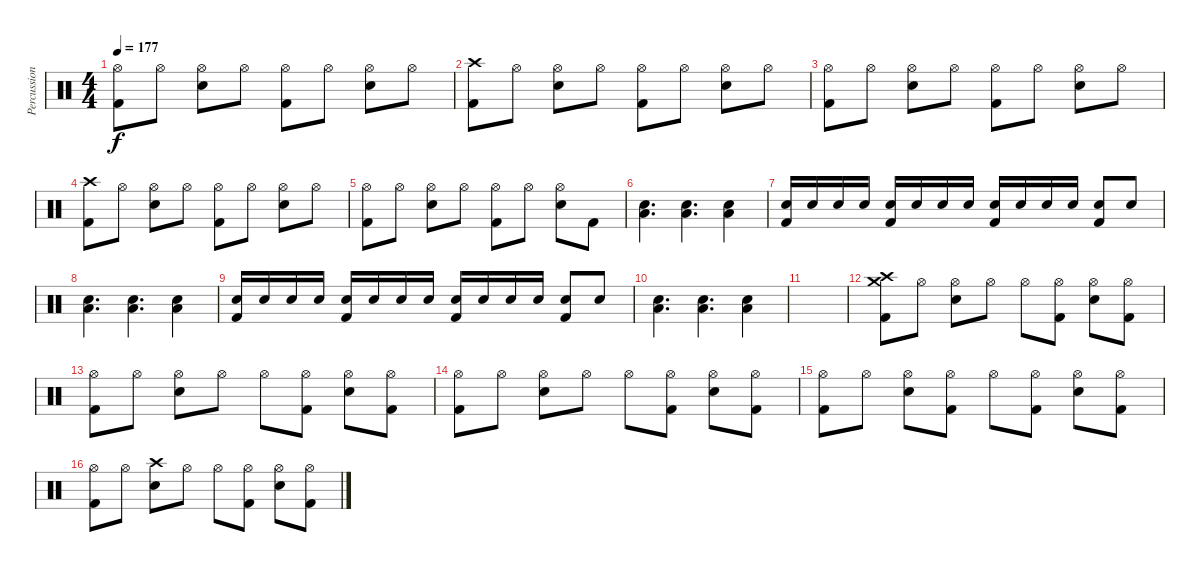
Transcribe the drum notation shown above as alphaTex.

\track ("Percussion" "Percussion") {instrument percussion}
\staff {score}
\articulation defaults
\ts (4 4)
\tempo 177
\clef neutral
\ks c
("Hi-Hat (open)" "Kick (hit) 2").8{dy f} "Hi-Hat (open)".8 ("Hi-Hat (open)" "Snare (hit) 2").8 "Hi-Hat (open)".8 ("Hi-Hat (open)" "Kick (hit) 2").8 "Hi-Hat (open)".8 ("Hi-Hat (open)" "Snare (hit) 2").8 "Hi-Hat (open)".8 |
("Crash high (hit)" "Kick (hit) 2").8 "Hi-Hat (open)".8 ("Hi-Hat (open)" "Snare (hit) 2").8 "Hi-Hat (open)".8 ("Hi-Hat (open)" "Kick (hit) 2").8 "Hi-Hat (open)".8 ("Hi-Hat (open)" "Snare (hit) 2").8 "Hi-Hat (open)".8 |
("Hi-Hat (open)" "Kick (hit) 2").8 "Hi-Hat (open)".8 ("Hi-Hat (open)" "Snare (hit) 2").8 "Hi-Hat (open)".8 ("Hi-Hat (open)" "Kick (hit) 2").8 "Hi-Hat (open)".8 ("Hi-Hat (open)" "Snare (hit) 2").8 "Hi-Hat (open)".8 |
("Crash high (hit)" "Kick (hit) 2").8 "Hi-Hat (open)".8 ("Hi-Hat (open)" "Snare (hit) 2").8 "Hi-Hat (open)".8 ("Hi-Hat (open)" "Kick (hit) 2").8 "Hi-Hat (open)".8 ("Hi-Hat (open)" "Snare (hit) 2").8 "Hi-Hat (open)".8 |
("Hi-Hat (open)" "Kick (hit) 2").8 "Hi-Hat (open)".8 ("Hi-Hat (open)" "Snare (hit) 2").8 "Hi-Hat (open)".8 ("Hi-Hat (open)" "Kick (hit) 2").8 "Hi-Hat (open)".8 ("Hi-Hat (open)" "Snare (hit) 2").8 "Kick (hit) 2".8 |
("Snare (hit) 2" "Low Floor Tom (hit)").4{d} ("Snare (hit) 2" "Low Floor Tom (hit)").4{d} ("Snare (hit) 2" "Low Floor Tom (hit)").4 |
("Snare (hit) 2" "Kick (hit) 2").16 "Snare (hit) 2".16 "Snare (hit) 2".16 "Snare (hit) 2".16 ("Snare (hit) 2" "Kick (hit) 2").16 "Snare (hit) 2".16 "Snare (hit) 2".16 "Snare (hit) 2".16 ("Snare (hit) 2" "Kick (hit) 2").16 "Snare (hit) 2".16 "Snare (hit) 2".16 "Snare (hit) 2".16 ("Snare (hit) 2" "Kick (hit) 2").8 "Snare (hit) 2".8 |
("Snare (hit) 2" "Low Floor Tom (hit)").4{d} ("Snare (hit) 2" "Low Floor Tom (hit)").4{d} ("Snare (hit) 2" "Low Floor Tom (hit)").4 |
("Snare (hit) 2" "Kick (hit) 2").16 "Snare (hit) 2".16 "Snare (hit) 2".16 "Snare (hit) 2".16 ("Snare (hit) 2" "Kick (hit) 2").16 "Snare (hit) 2".16 "Snare (hit) 2".16 "Snare (hit) 2".16 ("Snare (hit) 2" "Kick (hit) 2").16 "Snare (hit) 2".16 "Snare (hit) 2".16 "Snare (hit) 2".16 ("Snare (hit) 2" "Kick (hit) 2").8 "Snare (hit) 2".8 |
("Snare (hit) 2" "Low Floor Tom (hit)").4{d} ("Snare (hit) 2" "Low Floor Tom (hit)").4{d} ("Snare (hit) 2" "Low Floor Tom (hit)").4 |
|
("Crash medium (hit)" "Crash high (hit)" "Kick (hit) 2").8 "Hi-Hat (open)".8 ("Hi-Hat (open)" "Snare (hit) 2").8 "Hi-Hat (open)".8 "Hi-Hat (open)".8 ("Hi-Hat (open)" "Kick (hit) 2").8 ("Hi-Hat (open)" "Snare (hit) 2").8 ("Hi-Hat (open)" "Kick (hit) 2").8 |
("Hi-Hat (open)" "Kick (hit) 2").8 "Hi-Hat (open)".8 ("Hi-Hat (open)" "Snare (hit) 2").8 "Hi-Hat (open)".8 "Hi-Hat (open)".8 ("Hi-Hat (open)" "Kick (hit) 2").8 ("Hi-Hat (open)" "Snare (hit) 2").8 ("Hi-Hat (open)" "Kick (hit) 2").8 |
("Hi-Hat (open)" "Kick (hit) 2").8 "Hi-Hat (open)".8 ("Hi-Hat (open)" "Snare (hit) 2").8 "Hi-Hat (open)".8 "Hi-Hat (open)".8 ("Hi-Hat (open)" "Kick (hit) 2").8 ("Hi-Hat (open)" "Snare (hit) 2").8 ("Hi-Hat (open)" "Kick (hit) 2").8 |
("Hi-Hat (open)" "Kick (hit) 2").8 "Hi-Hat (open)".8 ("Hi-Hat (open)" "Snare (hit) 2").8 ("Hi-Hat (open)" "Kick (hit) 2").8 "Hi-Hat (open)".8 ("Hi-Hat (open)" "Kick (hit) 2").8 ("Hi-Hat (open)" "Snare (hit) 2").8 ("Hi-Hat (open)" "Kick (hit) 2").8 |
("Hi-Hat (open)" "Kick (hit) 2").8 "Hi-Hat (open)".8 ("Crash high (hit)" "Snare (hit) 2").8 "Hi-Hat (open)".8 "Hi-Hat (open)".8 ("Hi-Hat (open)" "Kick (hit) 2").8 ("Hi-Hat (open)" "Snare (hit) 2").8 ("Hi-Hat (open)" "Kick (hit) 2").8
